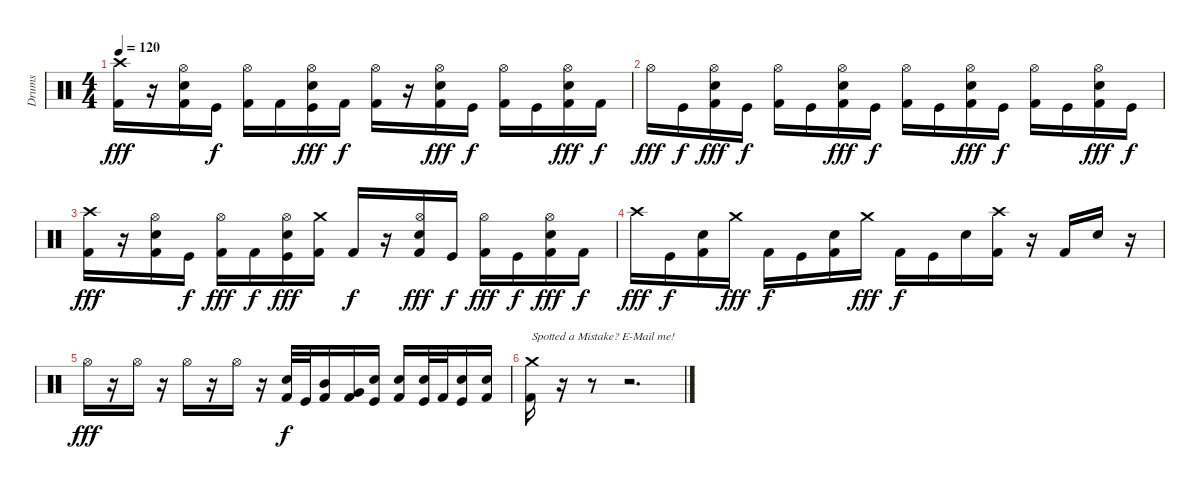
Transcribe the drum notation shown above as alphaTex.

\track ("Drums" "Drums") {instrument percussion}
\staff {score}
\articulation defaults
\ts (4 4)
\tempo 120
\clef neutral
\ks c
("Crash high (hit)" "Kick (hit) 2").16{dy fff} r.16 ("Hi-Hat (open)" "Snare (hit) 2" "Kick (hit) 2").16 "Kick (hit)".16{dy f} ("Hi-Hat (open)" "Kick (hit) 2").16 "Kick (hit) 2".16 ("Hi-Hat (open)" "Snare (hit) 2" "Kick (hit)").16{dy fff} "Kick (hit) 2".16{dy f} ("Hi-Hat (open)" "Kick (hit) 2").16 r.16 ("Hi-Hat (open)" "Snare (hit) 2" "Kick (hit) 2").16{dy fff} "Kick (hit)".16{dy f} ("Hi-Hat (open)" "Kick (hit) 2").16 "Kick (hit)".16 ("Hi-Hat (open)" "Snare (hit) 2" "Kick (hit) 2").16{dy fff} "Kick (hit) 2".16{dy f} |
"Hi-Hat (open)".16{dy fff} "Kick (hit)".16{dy f} ("Hi-Hat (open)" "Snare (hit) 2" "Kick (hit) 2").16{dy fff} "Kick (hit)".16{dy f} ("Hi-Hat (open)" "Kick (hit) 2").16 "Kick (hit)".16 ("Hi-Hat (open)" "Snare (hit) 2" "Kick (hit) 2").16{dy fff} "Kick (hit)".16{dy f} ("Hi-Hat (open)" "Kick (hit) 2").16 "Kick (hit)".16 ("Hi-Hat (open)" "Snare (hit) 2" "Kick (hit) 2").16{dy fff} "Kick (hit)".16{dy f} ("Hi-Hat (open)" "Kick (hit) 2").16 "Kick (hit)".16 ("Hi-Hat (open)" "Snare (hit) 2" "Kick (hit) 2").16{dy fff} "Kick (hit)".16{dy f} |
("Crash high (hit)" "Kick (hit) 2").16{dy fff} r.16 ("Hi-Hat (open)" "Snare (hit) 2" "Kick (hit) 2").16 "Kick (hit)".16{dy f} ("Hi-Hat (open)" "Kick (hit) 2").16{dy fff} "Kick (hit) 2".16{dy f} ("Hi-Hat (open)" "Snare (hit) 2" "Kick (hit)").16{dy fff} ("Crash medium (hit)" "Kick (hit) 2").16 "Kick (hit) 2".16{dy f} r.16 ("Hi-Hat (open)" "Snare (hit) 2" "Kick (hit) 2").16{dy fff} "Kick (hit)".16{dy f} ("Hi-Hat (open)" "Kick (hit) 2").16{dy fff} "Kick (hit)".16{dy f} ("Hi-Hat (open)" "Snare (hit) 2" "Kick (hit) 2").16{dy fff} "Kick (hit) 2".16{dy f} |
"Crash high (hit)".16{dy fff} "Kick (hit)".16{dy f} ("Snare (hit) 2" "Kick (hit) 2").16 "Crash medium (hit)".16{dy fff} "Kick (hit) 2".16{dy f} "Kick (hit)".16 ("Snare (hit) 2" "Kick (hit) 2").16 "Crash medium (hit)".16{dy fff} "Kick (hit) 2".16{dy f} "Kick (hit)".16 "Snare (hit) 2".16 ("Crash high (hit)" "Kick (hit) 2").16 r.16 "Kick (hit) 2".16 "Snare (hit) 2".16 r.16 |
"Hi-Hat (open)".16{dy fff} r.16 "Hi-Hat (open)".16 r.16 "Hi-Hat (open)".16 r.16 "Hi-Hat (open)".16 r.16 ("Snare (hit) 2" "Kick (hit) 2").32{dy f} "Kick (hit)".32 ("Mid Tom (hit)" "Kick (hit) 2").16 ("Very Low Tom (hit)" "Kick (hit) 2").16 ("Snare (hit) 2" "Kick (hit)").16 ("Snare (hit) 2" "Kick (hit) 2").16 ("Snare (hit) 2" "Kick (hit)").32 "Kick (hit) 2".32 ("Snare (hit) 2" "Kick (hit)").16 ("Snare (hit) 2" "Kick (hit) 2").16 |
("Crash medium (hit)" "Kick (hit) 2").16{txt "Spotted a Mistake? E-Mail me!"} r.16 r.8 r.2{d}
